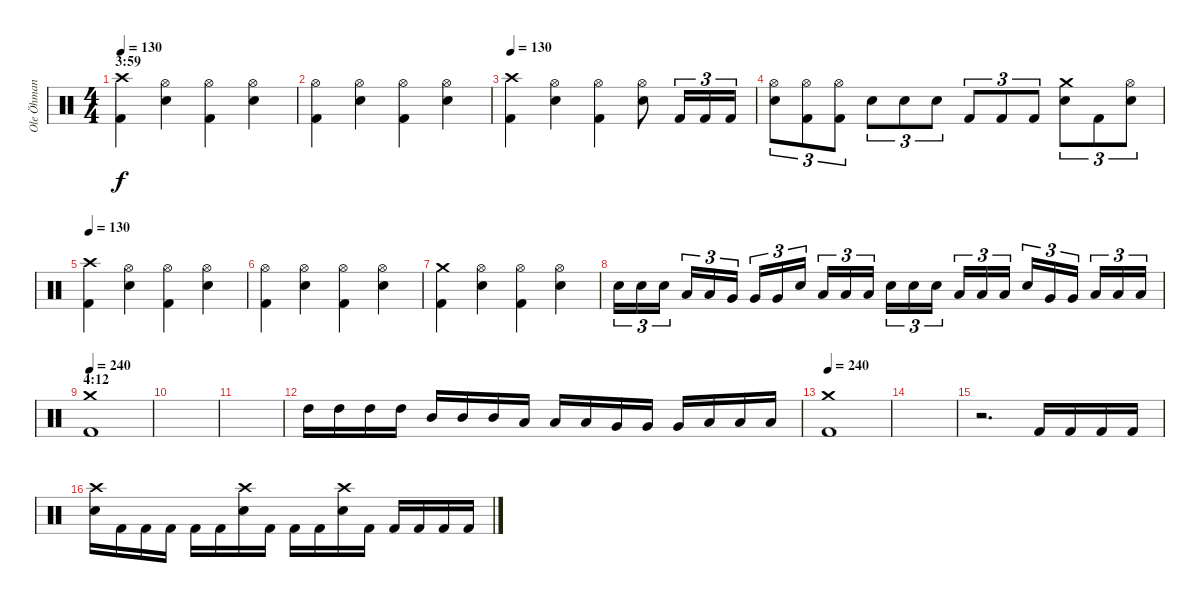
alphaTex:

\track ("Ole Öhman" "Ole Öhman") {instrument percussion}
\staff {score}
\articulation defaults
\ts (4 4)
\section ("" "3:59")
\tempo 130
\clef neutral
\ks c
("Crash high (hit)" "Kick (hit) 2").4{dy f} ("Hi-Hat (open)" "Electric Snare (hit)").4 ("Hi-Hat (open)" "Kick (hit) 2").4 ("Hi-Hat (open)" "Electric Snare (hit)").4 |
("Hi-Hat (open)" "Kick (hit) 2").4 ("Hi-Hat (open)" "Electric Snare (hit)").4 ("Hi-Hat (open)" "Kick (hit) 2").4 ("Hi-Hat (open)" "Electric Snare (hit)").4 |
\tempo 130
("Crash high (hit)" "Kick (hit) 2").4 ("Hi-Hat (open)" "Electric Snare (hit)").4 ("Hi-Hat (open)" "Kick (hit) 2").4 ("Hi-Hat (open)" "Electric Snare (hit)").8 "Kick (hit) 2".16{tu (3 2)} "Kick (hit) 2".16{tu (3 2)} "Kick (hit) 2".16{tu (3 2)} |
("Hi-Hat (open)" "Electric Snare (hit)").8{tu (3 2)} ("Hi-Hat (open)" "Kick (hit) 2").8{tu (3 2)} ("Hi-Hat (open)" "Kick (hit) 2").8{tu (3 2)} "Electric Snare (hit)".8{tu (3 2)} "Electric Snare (hit)".8{tu (3 2)} "Electric Snare (hit)".8{tu (3 2)} "Kick (hit) 2".8{tu (3 2)} "Kick (hit) 2".8{tu (3 2)} "Kick (hit) 2".8{tu (3 2)} ("Crash medium (hit)" "Electric Snare (hit)").8{tu (3 2)} "Kick (hit) 2".8{tu (3 2)} ("Hi-Hat (open)" "Electric Snare (hit)").8{tu (3 2)} |
\tempo 130
("Crash high (hit)" "Kick (hit) 2").4 ("Hi-Hat (open)" "Electric Snare (hit)").4 ("Hi-Hat (open)" "Kick (hit) 2").4 ("Hi-Hat (open)" "Electric Snare (hit)").4 |
("Hi-Hat (open)" "Kick (hit) 2").4 ("Hi-Hat (open)" "Electric Snare (hit)").4 ("Hi-Hat (open)" "Kick (hit) 2").4 ("Hi-Hat (open)" "Electric Snare (hit)").4 |
("Crash medium (hit)" "Kick (hit) 2").4 ("Hi-Hat (open)" "Electric Snare (hit)").4 ("Hi-Hat (open)" "Kick (hit) 2").4 ("Hi-Hat (open)" "Electric Snare (hit)").4 |
"Electric Snare (hit)".16{tu (3 2)} "Electric Snare (hit)".16{tu (3 2)} "Electric Snare (hit)".16{tu (3 2)} "Low Tom (hit)".16{tu (3 2)} "Low Tom (hit)".16{tu (3 2)} "Very Low Tom (hit)".16{tu (3 2)} "Very Low Tom (hit)".16{tu (3 2)} "Very Low Tom (hit)".16{tu (3 2)} "Electric Snare (hit)".16{tu (3 2)} "Low Floor Tom (hit)".16{tu (3 2)} "Low Floor Tom (hit)".16{tu (3 2)} "Low Floor Tom (hit)".16{tu (3 2)} "Electric Snare (hit)".16{tu (3 2)} "Electric Snare (hit)".16{tu (3 2)} "Electric Snare (hit)".16{tu (3 2)} "Low Tom (hit)".16{tu (3 2)} "Low Tom (hit)".16{tu (3 2)} "Low Tom (hit)".16{tu (3 2)} "Electric Snare (hit)".16{tu (3 2)} "Very Low Tom (hit)".16{tu (3 2)} "Very Low Tom (hit)".16{tu (3 2)} "Low Floor Tom (hit)".16{tu (3 2)} "Low Floor Tom (hit)".16{tu (3 2)} "Low Floor Tom (hit)".16{tu (3 2)} |
\section ("" "4:12")
\tempo 240
("Crash medium (hit)" "Kick (hit) 2").1 |
|
|
"High Tom (hit)".16 "High Tom (hit)".16 "High Tom (hit)".16 "High Tom (hit)".16 "Mid Tom (hit)".16 "Mid Tom (hit)".16 "Mid Tom (hit)".16 "Low Tom (hit)".16 "Low Tom (hit)".16 "Low Tom (hit)".16 "Very Low Tom (hit)".16 "Very Low Tom (hit)".16 "Very Low Tom (hit)".16 "Low Floor Tom (hit)".16 "Low Floor Tom (hit)".16 "Low Floor Tom (hit)".16 |
\tempo 240
("Crash medium (hit)" "Kick (hit) 2").1 |
|
r.2{d} "Kick (hit) 2".16 "Kick (hit) 2".16 "Kick (hit) 2".16 "Kick (hit) 2".16 |
("Crash high (hit)" "Electric Snare (hit)").16 "Kick (hit) 2".16 "Kick (hit) 2".16 "Kick (hit) 2".16 "Kick (hit) 2".16 "Kick (hit) 2".16 ("Crash high (hit)" "Electric Snare (hit)").16 "Kick (hit) 2".16 "Kick (hit) 2".16 "Kick (hit) 2".16 ("Crash high (hit)" "Electric Snare (hit)").16 "Kick (hit) 2".16 "Kick (hit) 2".16 "Kick (hit) 2".16 "Kick (hit) 2".16 "Kick (hit) 2".16
